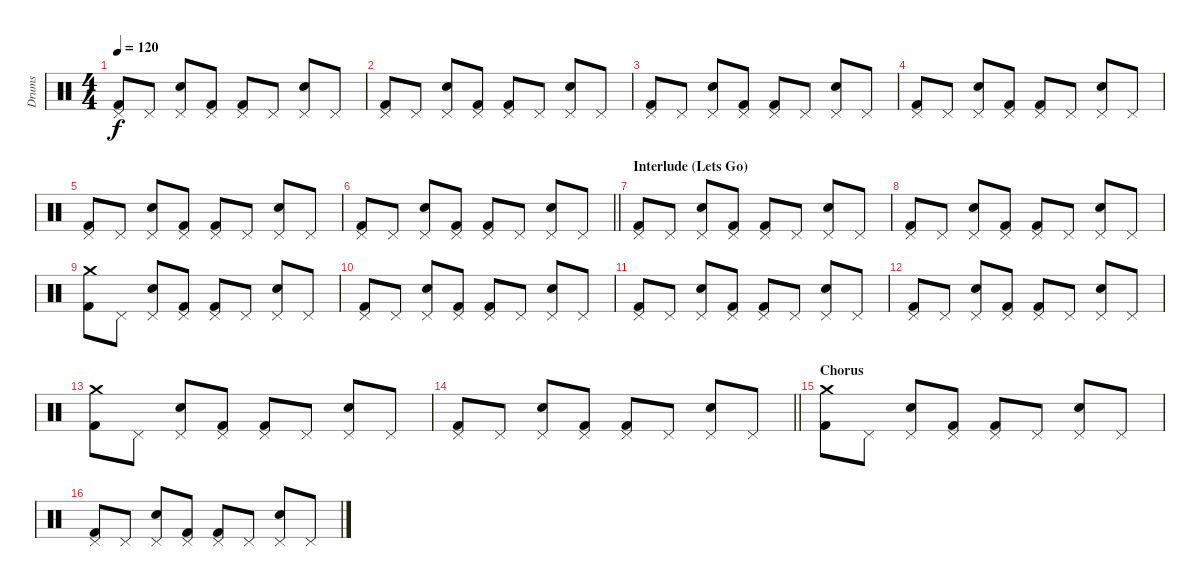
\track ("Drums" "Drums") {instrument percussion}
\staff {score}
\articulation defaults
\ts (4 4)
\tempo 120
\clef neutral
\ks c
("Pedal Hi-Hat (hit)" "Kick (hit) 2").8{dy f} "Pedal Hi-Hat (hit)".8 ("Pedal Hi-Hat (hit)" "Electric Snare (hit)").8 ("Pedal Hi-Hat (hit)" "Kick (hit) 2").8 ("Pedal Hi-Hat (hit)" "Kick (hit) 2").8 "Pedal Hi-Hat (hit)".8 ("Pedal Hi-Hat (hit)" "Electric Snare (hit)").8 "Pedal Hi-Hat (hit)".8 |
("Pedal Hi-Hat (hit)" "Kick (hit) 2").8 "Pedal Hi-Hat (hit)".8 ("Pedal Hi-Hat (hit)" "Electric Snare (hit)").8 ("Pedal Hi-Hat (hit)" "Kick (hit) 2").8 ("Pedal Hi-Hat (hit)" "Kick (hit) 2").8 "Pedal Hi-Hat (hit)".8 ("Pedal Hi-Hat (hit)" "Electric Snare (hit)").8 "Pedal Hi-Hat (hit)".8 |
("Pedal Hi-Hat (hit)" "Kick (hit) 2").8 "Pedal Hi-Hat (hit)".8 ("Pedal Hi-Hat (hit)" "Electric Snare (hit)").8 ("Pedal Hi-Hat (hit)" "Kick (hit) 2").8 ("Pedal Hi-Hat (hit)" "Kick (hit) 2").8 "Pedal Hi-Hat (hit)".8 ("Pedal Hi-Hat (hit)" "Electric Snare (hit)").8 "Pedal Hi-Hat (hit)".8 |
("Pedal Hi-Hat (hit)" "Kick (hit) 2").8 "Pedal Hi-Hat (hit)".8 ("Pedal Hi-Hat (hit)" "Electric Snare (hit)").8 ("Pedal Hi-Hat (hit)" "Kick (hit) 2").8 ("Pedal Hi-Hat (hit)" "Kick (hit) 2").8 "Pedal Hi-Hat (hit)".8 ("Pedal Hi-Hat (hit)" "Electric Snare (hit)").8 "Pedal Hi-Hat (hit)".8 |
("Pedal Hi-Hat (hit)" "Kick (hit) 2").8 "Pedal Hi-Hat (hit)".8 ("Pedal Hi-Hat (hit)" "Electric Snare (hit)").8 ("Pedal Hi-Hat (hit)" "Kick (hit) 2").8 ("Pedal Hi-Hat (hit)" "Kick (hit) 2").8 "Pedal Hi-Hat (hit)".8 ("Pedal Hi-Hat (hit)" "Electric Snare (hit)").8 "Pedal Hi-Hat (hit)".8 |
\barLineRight lightlight
("Pedal Hi-Hat (hit)" "Kick (hit) 2").8 "Pedal Hi-Hat (hit)".8 ("Pedal Hi-Hat (hit)" "Electric Snare (hit)").8 ("Pedal Hi-Hat (hit)" "Kick (hit) 2").8 ("Pedal Hi-Hat (hit)" "Kick (hit) 2").8 "Pedal Hi-Hat (hit)".8 ("Pedal Hi-Hat (hit)" "Electric Snare (hit)").8 "Pedal Hi-Hat (hit)".8 |
\section ("" "Interlude (Lets Go)")
("Pedal Hi-Hat (hit)" "Kick (hit) 2").8 "Pedal Hi-Hat (hit)".8 ("Pedal Hi-Hat (hit)" "Electric Snare (hit)").8 ("Pedal Hi-Hat (hit)" "Kick (hit) 2").8 ("Pedal Hi-Hat (hit)" "Kick (hit) 2").8 "Pedal Hi-Hat (hit)".8 ("Pedal Hi-Hat (hit)" "Electric Snare (hit)").8 "Pedal Hi-Hat (hit)".8 |
("Pedal Hi-Hat (hit)" "Kick (hit) 2").8 "Pedal Hi-Hat (hit)".8 ("Pedal Hi-Hat (hit)" "Electric Snare (hit)").8 ("Pedal Hi-Hat (hit)" "Kick (hit) 2").8 ("Pedal Hi-Hat (hit)" "Kick (hit) 2").8 "Pedal Hi-Hat (hit)".8 ("Pedal Hi-Hat (hit)" "Electric Snare (hit)").8 "Pedal Hi-Hat (hit)".8 |
("Crash medium (hit)" "Kick (hit) 2").8 "Pedal Hi-Hat (hit)".8 ("Pedal Hi-Hat (hit)" "Electric Snare (hit)").8 ("Pedal Hi-Hat (hit)" "Kick (hit) 2").8 ("Pedal Hi-Hat (hit)" "Kick (hit) 2").8 "Pedal Hi-Hat (hit)".8 ("Pedal Hi-Hat (hit)" "Electric Snare (hit)").8 "Pedal Hi-Hat (hit)".8 |
("Pedal Hi-Hat (hit)" "Kick (hit) 2").8 "Pedal Hi-Hat (hit)".8 ("Pedal Hi-Hat (hit)" "Electric Snare (hit)").8 ("Pedal Hi-Hat (hit)" "Kick (hit) 2").8 ("Pedal Hi-Hat (hit)" "Kick (hit) 2").8 "Pedal Hi-Hat (hit)".8 ("Pedal Hi-Hat (hit)" "Electric Snare (hit)").8 "Pedal Hi-Hat (hit)".8 |
("Pedal Hi-Hat (hit)" "Kick (hit) 2").8 "Pedal Hi-Hat (hit)".8 ("Pedal Hi-Hat (hit)" "Electric Snare (hit)").8 ("Pedal Hi-Hat (hit)" "Kick (hit) 2").8 ("Pedal Hi-Hat (hit)" "Kick (hit) 2").8 "Pedal Hi-Hat (hit)".8 ("Pedal Hi-Hat (hit)" "Electric Snare (hit)").8 "Pedal Hi-Hat (hit)".8 |
("Pedal Hi-Hat (hit)" "Kick (hit) 2").8 "Pedal Hi-Hat (hit)".8 ("Pedal Hi-Hat (hit)" "Electric Snare (hit)").8 ("Pedal Hi-Hat (hit)" "Kick (hit) 2").8 ("Pedal Hi-Hat (hit)" "Kick (hit) 2").8 "Pedal Hi-Hat (hit)".8 ("Pedal Hi-Hat (hit)" "Electric Snare (hit)").8 "Pedal Hi-Hat (hit)".8 |
("Crash medium (hit)" "Kick (hit) 2").8 "Pedal Hi-Hat (hit)".8 ("Pedal Hi-Hat (hit)" "Electric Snare (hit)").8 ("Pedal Hi-Hat (hit)" "Kick (hit) 2").8 ("Pedal Hi-Hat (hit)" "Kick (hit) 2").8 "Pedal Hi-Hat (hit)".8 ("Pedal Hi-Hat (hit)" "Electric Snare (hit)").8 "Pedal Hi-Hat (hit)".8 |
\barLineRight lightlight
("Pedal Hi-Hat (hit)" "Kick (hit) 2").8 "Pedal Hi-Hat (hit)".8 ("Pedal Hi-Hat (hit)" "Electric Snare (hit)").8 ("Pedal Hi-Hat (hit)" "Kick (hit) 2").8 ("Pedal Hi-Hat (hit)" "Kick (hit) 2").8 "Pedal Hi-Hat (hit)".8 ("Pedal Hi-Hat (hit)" "Electric Snare (hit)").8 "Pedal Hi-Hat (hit)".8 |
\section ("" "Chorus")
("Crash medium (hit)" "Kick (hit) 2").8 "Pedal Hi-Hat (hit)".8 ("Pedal Hi-Hat (hit)" "Electric Snare (hit)").8 ("Pedal Hi-Hat (hit)" "Kick (hit) 2").8 ("Pedal Hi-Hat (hit)" "Kick (hit) 2").8 "Pedal Hi-Hat (hit)".8 ("Pedal Hi-Hat (hit)" "Electric Snare (hit)").8 "Pedal Hi-Hat (hit)".8 |
("Pedal Hi-Hat (hit)" "Kick (hit) 2").8 "Pedal Hi-Hat (hit)".8 ("Pedal Hi-Hat (hit)" "Electric Snare (hit)").8 ("Pedal Hi-Hat (hit)" "Kick (hit) 2").8 ("Pedal Hi-Hat (hit)" "Kick (hit) 2").8 "Pedal Hi-Hat (hit)".8 ("Pedal Hi-Hat (hit)" "Electric Snare (hit)").8 "Pedal Hi-Hat (hit)".8
